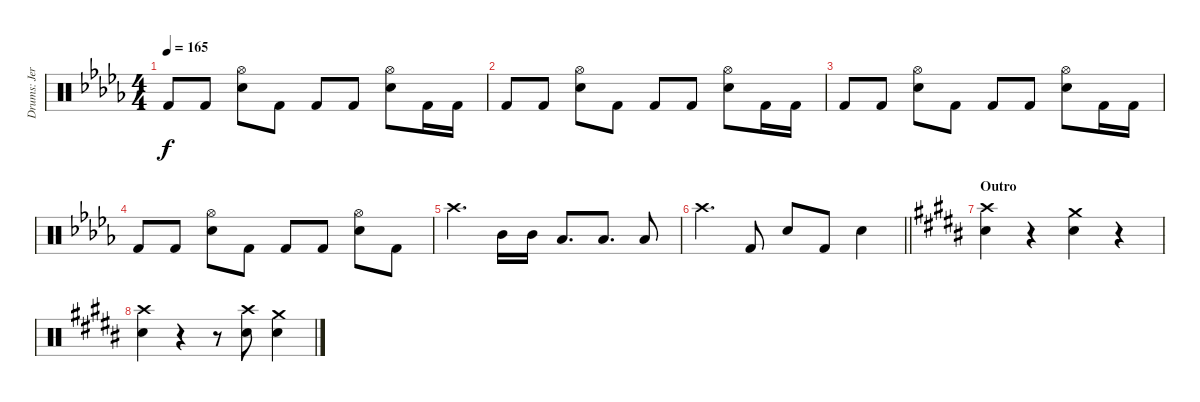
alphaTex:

\track ("Drums: Jere Luokkamäki" "Drums: Jer") {instrument percussion}
\staff {score}
\articulation defaults
\ts (4 4)
\tempo 165
\clef neutral
\ks bbminor "Kick (hit) 2".8{dy f} "Kick (hit) 2".8
("Hi-Hat (open)" "Electric Snare (hit)").8 "Kick (hit) 2".8 "Kick (hit) 2".8 "Kick (hit) 2".8 ("Hi-Hat (open)" "Electric Snare (hit)").8 "Kick (hit) 2".16 "Kick (hit) 2".16 |
"Kick (hit) 2".8 "Kick (hit) 2".8 ("Hi-Hat (open)" "Electric Snare (hit)").8 "Kick (hit) 2".8 "Kick (hit) 2".8 "Kick (hit) 2".8 ("Hi-Hat (open)" "Electric Snare (hit)").8 "Kick (hit) 2".16 "Kick (hit) 2".16 |
"Kick (hit) 2".8 "Kick (hit) 2".8 ("Hi-Hat (open)" "Electric Snare (hit)").8 "Kick (hit) 2".8 "Kick (hit) 2".8 "Kick (hit) 2".8 ("Hi-Hat (open)" "Electric Snare (hit)").8 "Kick (hit) 2".16 "Kick (hit) 2".16 |
"Kick (hit) 2".8 "Kick (hit) 2".8 ("Hi-Hat (open)" "Electric Snare (hit)").8 "Kick (hit) 2".8 "Kick (hit) 2".8 "Kick (hit) 2".8 ("Hi-Hat (open)" "Electric Snare (hit)").8 "Kick (hit) 2".8 |
"Crash high (hit)".4{d} "Mid Tom (hit)".16 "Mid Tom (hit)".16 "Low Tom (hit)".8{d} "Low Tom (hit)".8{d} "Low Tom (hit)".8 |
\barLineRight lightlight "Crash high (hit)".4{d} "Kick (hit) 2".8 "Electric Snare (hit)".8 "Kick (hit) 2".8 "Electric Snare (hit)".4
|
\section ("" "Outro")
\ks g#minor
("Crash high (hit)" "Electric Snare (hit)").4 r.4 ("Crash medium (hit)" "Electric Snare (hit)").4 r.4 |
("Crash high (hit)" "Electric Snare (hit)").4 r.4 r.8 ("Crash high (hit)" "Electric Snare (hit)").8 ("Crash medium (hit)" "Electric Snare (hit)").4
